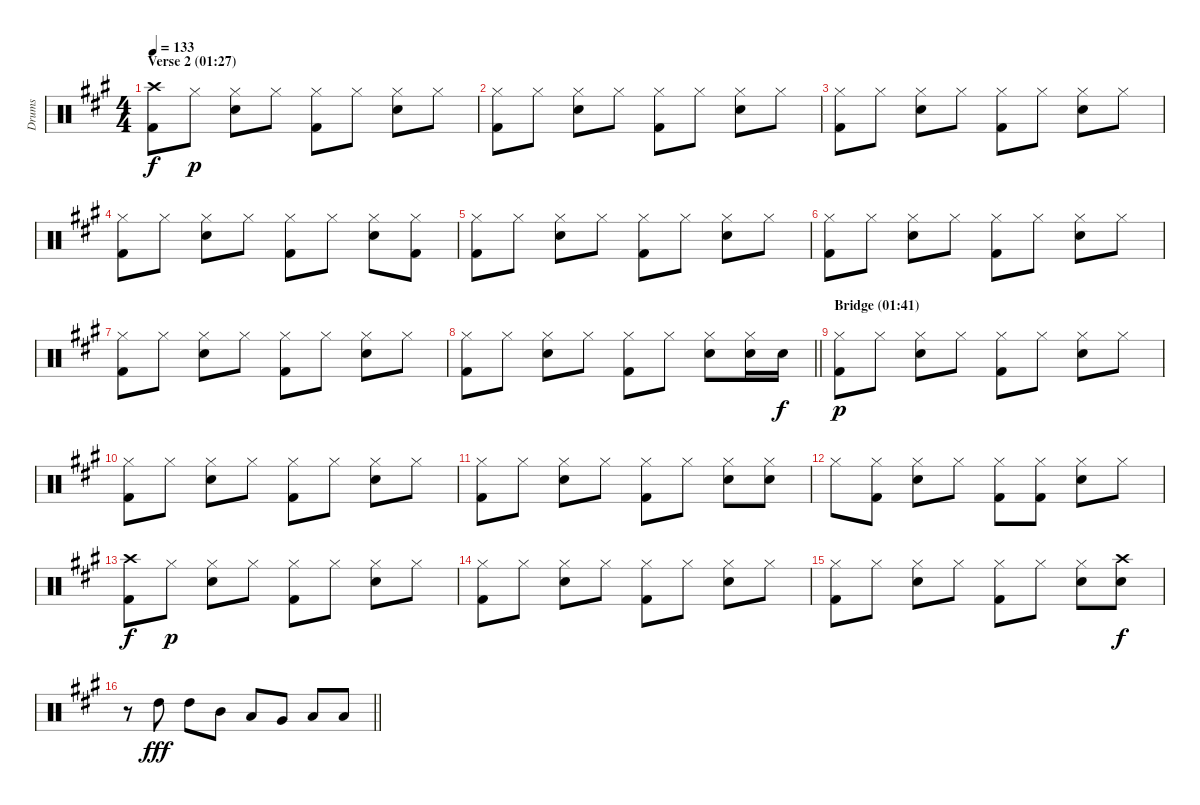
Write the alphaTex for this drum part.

\track ("Drums" "Drums") {instrument percussion}
\staff {score}
\articulation defaults
\ts (4 4)
\section ("" "Verse 2 (01:27)")
\tempo 133
\clef neutral
\ks a
("Crash high (hit)" "Kick (hit) 2").8{dy f} "Hi-Hat (closed)".8{dy p} ("Hi-Hat (closed)" "Snare (hit) 2").8 "Hi-Hat (closed)".8 ("Hi-Hat (closed)" "Kick (hit) 2").8 "Hi-Hat (closed)".8 ("Hi-Hat (closed)" "Snare (hit) 2").8 "Hi-Hat (closed)".8 |
("Hi-Hat (closed)" "Kick (hit) 2").8 "Hi-Hat (closed)".8 ("Hi-Hat (closed)" "Snare (hit) 2").8 "Hi-Hat (closed)".8 ("Hi-Hat (closed)" "Kick (hit) 2").8 "Hi-Hat (closed)".8 ("Hi-Hat (closed)" "Snare (hit) 2").8 "Hi-Hat (closed)".8 |
("Hi-Hat (closed)" "Kick (hit) 2").8 "Hi-Hat (closed)".8 ("Hi-Hat (closed)" "Snare (hit) 2").8 "Hi-Hat (closed)".8 ("Hi-Hat (closed)" "Kick (hit) 2").8 "Hi-Hat (closed)".8 ("Hi-Hat (closed)" "Snare (hit) 2").8 "Hi-Hat (closed)".8 |
("Hi-Hat (closed)" "Kick (hit) 2").8 "Hi-Hat (closed)".8 ("Hi-Hat (closed)" "Snare (hit) 2").8 "Hi-Hat (closed)".8 ("Hi-Hat (closed)" "Kick (hit) 2").8 "Hi-Hat (closed)".8 ("Hi-Hat (closed)" "Snare (hit) 2").8 ("Hi-Hat (closed)" "Kick (hit) 2").8 |
("Hi-Hat (closed)" "Kick (hit) 2").8 "Hi-Hat (closed)".8 ("Hi-Hat (closed)" "Snare (hit) 2").8 "Hi-Hat (closed)".8 ("Hi-Hat (closed)" "Kick (hit) 2").8 "Hi-Hat (closed)".8 ("Hi-Hat (closed)" "Snare (hit) 2").8 "Hi-Hat (closed)".8 |
("Hi-Hat (closed)" "Kick (hit) 2").8 "Hi-Hat (closed)".8 ("Hi-Hat (closed)" "Snare (hit) 2").8 "Hi-Hat (closed)".8 ("Hi-Hat (closed)" "Kick (hit) 2").8 "Hi-Hat (closed)".8 ("Hi-Hat (closed)" "Snare (hit) 2").8 "Hi-Hat (closed)".8 |
("Hi-Hat (closed)" "Kick (hit) 2").8 "Hi-Hat (closed)".8 ("Hi-Hat (closed)" "Snare (hit) 2").8 "Hi-Hat (closed)".8 ("Hi-Hat (closed)" "Kick (hit) 2").8 "Hi-Hat (closed)".8 ("Hi-Hat (closed)" "Snare (hit) 2").8 "Hi-Hat (closed)".8 |
\barLineRight lightlight
("Hi-Hat (closed)" "Kick (hit) 2").8 "Hi-Hat (closed)".8 ("Hi-Hat (closed)" "Snare (hit) 2").8 "Hi-Hat (closed)".8 ("Hi-Hat (closed)" "Kick (hit) 2").8 "Hi-Hat (closed)".8 ("Hi-Hat (closed)" "Snare (hit) 2").8 ("Hi-Hat (closed)" "Snare (hit) 2").16 "Snare (hit) 2".16{dy f} |
\section ("" "Bridge (01:41)")
("Hi-Hat (closed)" "Kick (hit) 2").8{dy p} "Hi-Hat (closed)".8 ("Hi-Hat (closed)" "Snare (hit) 2").8 "Hi-Hat (closed)".8 ("Hi-Hat (closed)" "Kick (hit) 2").8 "Hi-Hat (closed)".8 ("Hi-Hat (closed)" "Snare (hit) 2").8 "Hi-Hat (closed)".8 |
("Hi-Hat (closed)" "Kick (hit) 2").8 "Hi-Hat (closed)".8 ("Hi-Hat (closed)" "Snare (hit) 2").8 "Hi-Hat (closed)".8 ("Hi-Hat (closed)" "Kick (hit) 2").8 "Hi-Hat (closed)".8 ("Hi-Hat (closed)" "Snare (hit) 2").8 "Hi-Hat (closed)".8 |
("Hi-Hat (closed)" "Kick (hit) 2").8 "Hi-Hat (closed)".8 ("Hi-Hat (closed)" "Snare (hit) 2").8 "Hi-Hat (closed)".8 ("Hi-Hat (closed)" "Kick (hit) 2").8 "Hi-Hat (closed)".8 ("Hi-Hat (closed)" "Snare (hit) 2").8 ("Hi-Hat (closed)" "Snare (hit) 2").8 |
"Hi-Hat (closed)".8 ("Hi-Hat (closed)" "Kick (hit) 2").8 ("Hi-Hat (closed)" "Snare (hit) 2").8 "Hi-Hat (closed)".8 ("Hi-Hat (closed)" "Kick (hit) 2").8 ("Hi-Hat (closed)" "Kick (hit) 2").8 ("Hi-Hat (closed)" "Snare (hit) 2").8 "Hi-Hat (closed)".8 |
("Crash high (hit)" "Kick (hit) 2").8{dy f} "Hi-Hat (closed)".8{dy p} ("Hi-Hat (closed)" "Snare (hit) 2").8 "Hi-Hat (closed)".8 ("Hi-Hat (closed)" "Kick (hit) 2").8 "Hi-Hat (closed)".8 ("Hi-Hat (closed)" "Snare (hit) 2").8 "Hi-Hat (closed)".8 |
("Hi-Hat (closed)" "Kick (hit) 2").8 "Hi-Hat (closed)".8 ("Hi-Hat (closed)" "Snare (hit) 2").8 "Hi-Hat (closed)".8 ("Hi-Hat (closed)" "Kick (hit) 2").8 "Hi-Hat (closed)".8 ("Hi-Hat (closed)" "Snare (hit) 2").8 "Hi-Hat (closed)".8 |
("Hi-Hat (closed)" "Kick (hit) 2").8 "Hi-Hat (closed)".8 ("Hi-Hat (closed)" "Snare (hit) 2").8 "Hi-Hat (closed)".8 ("Hi-Hat (closed)" "Kick (hit) 2").8 "Hi-Hat (closed)".8 ("Hi-Hat (closed)" "Snare (hit) 2").8 ("Crash high (hit)" "Snare (hit) 2").8{dy f} |
\barLineRight lightlight
r.8 "High Tom (hit)".8{dy fff} "High Tom (hit)".8 "Mid Tom (hit)".8 "Low Tom (hit)".8 "Very Low Tom (hit)".8 "Low Floor Tom (hit)".8 "Low Floor Tom (hit)".8
